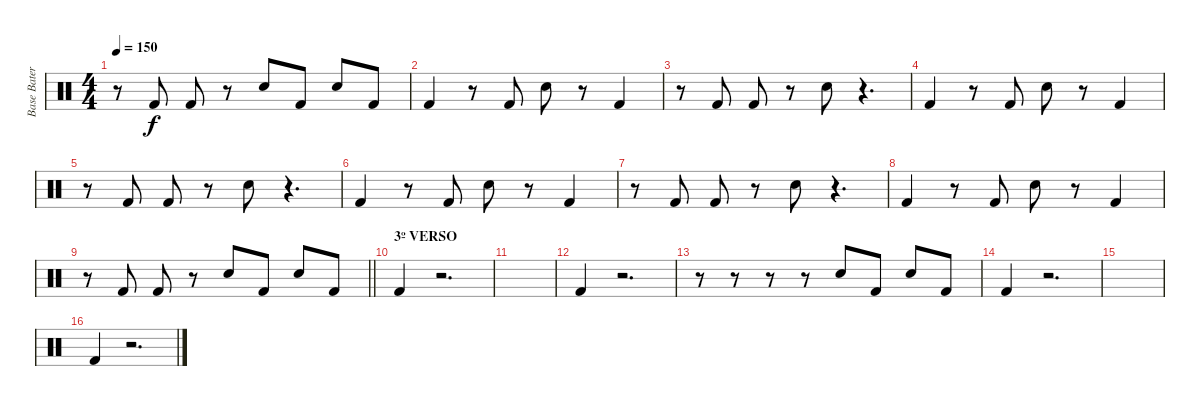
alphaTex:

\track ("Base Batería" "Base Bater") {instrument percussion}
\staff {score}
\articulation defaults
\ts (4 4)
\tempo 150
\clef neutral
\ks c
r.8{dy f} "Kick (hit) 2".8 "Kick (hit) 2".8 r.8 "Electric Snare (hit)".8 "Kick (hit) 2".8 "Electric Snare (hit)".8 "Kick (hit) 2".8 |
"Kick (hit) 2".4 r.8 "Kick (hit) 2".8 "Electric Snare (hit)".8 r.8 "Kick (hit) 2".4 |
r.8 "Kick (hit) 2".8 "Kick (hit) 2".8 r.8 "Electric Snare (hit)".8 r.4{d} |
"Kick (hit) 2".4 r.8 "Kick (hit) 2".8 "Electric Snare (hit)".8 r.8 "Kick (hit) 2".4 |
r.8 "Kick (hit) 2".8 "Kick (hit) 2".8 r.8 "Electric Snare (hit)".8 r.4{d} |
"Kick (hit) 2".4 r.8 "Kick (hit) 2".8 "Electric Snare (hit)".8 r.8 "Kick (hit) 2".4 |
r.8 "Kick (hit) 2".8 "Kick (hit) 2".8 r.8 "Electric Snare (hit)".8 r.4{d} |
"Kick (hit) 2".4 r.8 "Kick (hit) 2".8 "Electric Snare (hit)".8 r.8 "Kick (hit) 2".4 |
\barLineRight lightlight
r.8 "Kick (hit) 2".8 "Kick (hit) 2".8 r.8 "Electric Snare (hit)".8 "Kick (hit) 2".8 "Electric Snare (hit)".8 "Kick (hit) 2".8 |
\section ("" "3º VERSO")
"Kick (hit) 2".4 r.2{d} |
|
"Kick (hit) 2".4 r.2{d} |
r.8 r.8 r.8 r.8 "Electric Snare (hit)".8 "Kick (hit) 2".8 "Electric Snare (hit)".8 "Kick (hit) 2".8 |
"Kick (hit) 2".4 r.2{d} |
|
"Kick (hit) 2".4 r.2{d}
